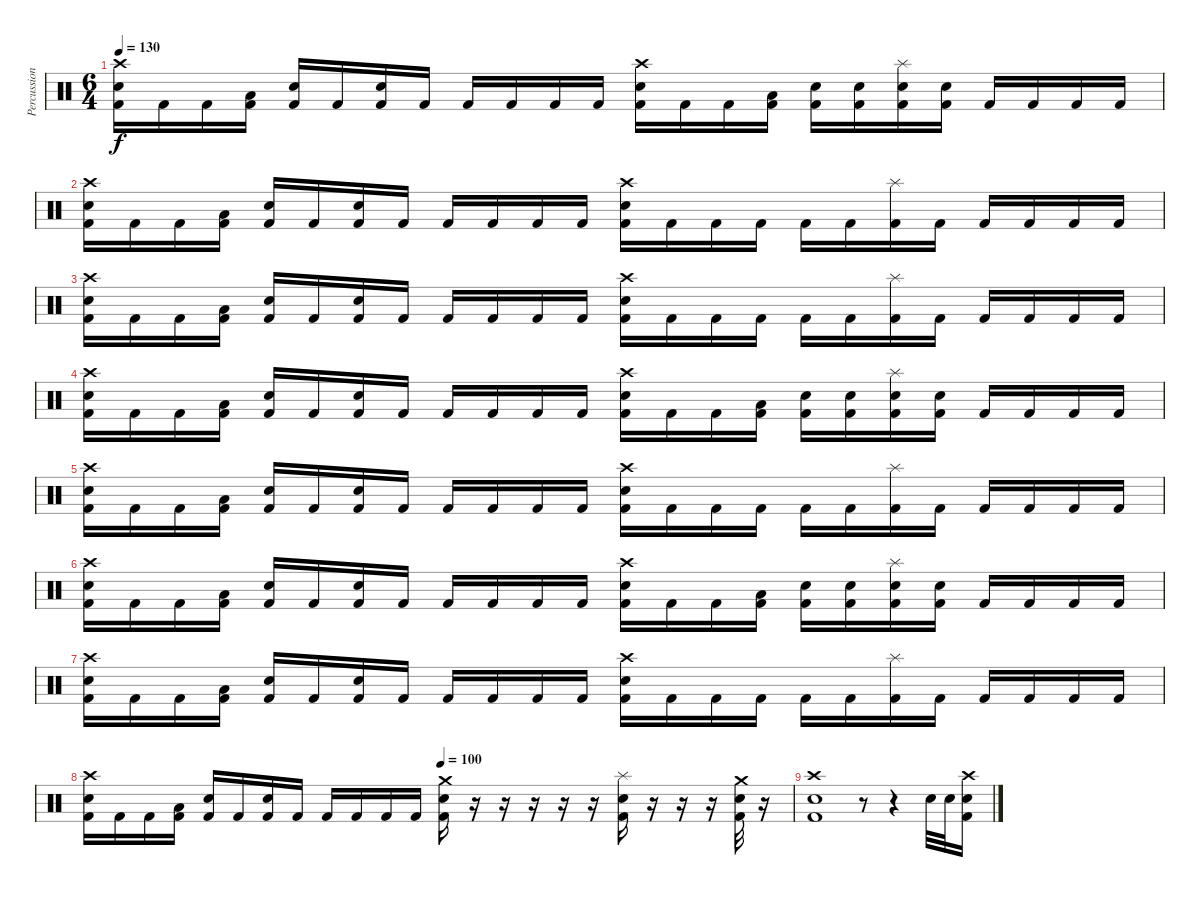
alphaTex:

\track ("Percussion" "Percussion") {instrument percussion}
\staff {score}
\articulation defaults
\ts (6 4)
\tempo 130
\clef neutral
\ks c
("Crash high (hit)" "Snare (hit) 2" "Kick (hit) 2").16{dy f} "Kick (hit) 2".16 "Kick (hit) 2".16 ("Low Tom (hit)" "Kick (hit) 2").16 ("Snare (hit) 2" "Kick (hit) 2").16 "Kick (hit) 2".16 ("Snare (hit) 2" "Kick (hit) 2").16 "Kick (hit) 2".16 "Kick (hit) 2".16 "Kick (hit) 2".16 "Kick (hit) 2".16 "Kick (hit) 2".16 ("Crash high (hit)" "Snare (hit) 2" "Kick (hit) 2").16 "Kick (hit) 2".16 "Kick (hit) 2".16 ("Low Tom (hit)" "Kick (hit) 2").16 ("Snare (hit) 2" "Kick (hit) 2").16 ("Electric Snare (hit)" "Kick (hit) 2").16 ("Splash (hit)" "Snare (hit) 2" "Kick (hit) 2").16 ("Electric Snare (hit)" "Kick (hit) 2").16 "Kick (hit) 2".16 "Kick (hit) 2".16 "Kick (hit) 2".16 "Kick (hit) 2".16 |
("Crash high (hit)" "Snare (hit) 2" "Kick (hit) 2").16 "Kick (hit) 2".16 "Kick (hit) 2".16 ("Low Tom (hit)" "Kick (hit) 2").16 ("Snare (hit) 2" "Kick (hit) 2").16 "Kick (hit) 2".16 ("Snare (hit) 2" "Kick (hit) 2").16 "Kick (hit) 2".16 "Kick (hit) 2".16 "Kick (hit) 2".16 "Kick (hit) 2".16 "Kick (hit) 2".16 ("Crash high (hit)" "Snare (hit) 2" "Kick (hit) 2").16 "Kick (hit) 2".16 "Kick (hit) 2".16 "Kick (hit) 2".16 "Kick (hit) 2".16 "Kick (hit) 2".16 ("Splash (hit)" "Kick (hit) 2").16 "Kick (hit) 2".16 "Kick (hit) 2".16 "Kick (hit) 2".16 "Kick (hit) 2".16 "Kick (hit) 2".16 |
("Crash high (hit)" "Snare (hit) 2" "Kick (hit) 2").16 "Kick (hit) 2".16 "Kick (hit) 2".16 ("Low Tom (hit)" "Kick (hit) 2").16 ("Snare (hit) 2" "Kick (hit) 2").16 "Kick (hit) 2".16 ("Snare (hit) 2" "Kick (hit) 2").16 "Kick (hit) 2".16 "Kick (hit) 2".16 "Kick (hit) 2".16 "Kick (hit) 2".16 "Kick (hit) 2".16 ("Crash high (hit)" "Snare (hit) 2" "Kick (hit) 2").16 "Kick (hit) 2".16 "Kick (hit) 2".16 "Kick (hit) 2".16 "Kick (hit) 2".16 "Kick (hit) 2".16 ("Splash (hit)" "Kick (hit) 2").16 "Kick (hit) 2".16 "Kick (hit) 2".16 "Kick (hit) 2".16 "Kick (hit) 2".16 "Kick (hit) 2".16 |
("Crash high (hit)" "Snare (hit) 2" "Kick (hit) 2").16 "Kick (hit) 2".16 "Kick (hit) 2".16 ("Low Tom (hit)" "Kick (hit) 2").16 ("Snare (hit) 2" "Kick (hit) 2").16 "Kick (hit) 2".16 ("Snare (hit) 2" "Kick (hit) 2").16 "Kick (hit) 2".16 "Kick (hit) 2".16 "Kick (hit) 2".16 "Kick (hit) 2".16 "Kick (hit) 2".16 ("Crash high (hit)" "Snare (hit) 2" "Kick (hit) 2").16 "Kick (hit) 2".16 "Kick (hit) 2".16 ("Low Tom (hit)" "Kick (hit) 2").16 ("Snare (hit) 2" "Kick (hit) 2").16 ("Electric Snare (hit)" "Kick (hit) 2").16 ("Splash (hit)" "Snare (hit) 2" "Kick (hit) 2").16 ("Electric Snare (hit)" "Kick (hit) 2").16 "Kick (hit) 2".16 "Kick (hit) 2".16 "Kick (hit) 2".16 "Kick (hit) 2".16 |
("Crash high (hit)" "Snare (hit) 2" "Kick (hit) 2").16 "Kick (hit) 2".16 "Kick (hit) 2".16 ("Low Tom (hit)" "Kick (hit) 2").16 ("Snare (hit) 2" "Kick (hit) 2").16 "Kick (hit) 2".16 ("Snare (hit) 2" "Kick (hit) 2").16 "Kick (hit) 2".16 "Kick (hit) 2".16 "Kick (hit) 2".16 "Kick (hit) 2".16 "Kick (hit) 2".16 ("Crash high (hit)" "Snare (hit) 2" "Kick (hit) 2").16 "Kick (hit) 2".16 "Kick (hit) 2".16 "Kick (hit) 2".16 "Kick (hit) 2".16 "Kick (hit) 2".16 ("Splash (hit)" "Kick (hit) 2").16 "Kick (hit) 2".16 "Kick (hit) 2".16 "Kick (hit) 2".16 "Kick (hit) 2".16 "Kick (hit) 2".16 |
("Crash high (hit)" "Snare (hit) 2" "Kick (hit) 2").16 "Kick (hit) 2".16 "Kick (hit) 2".16 ("Low Tom (hit)" "Kick (hit) 2").16 ("Snare (hit) 2" "Kick (hit) 2").16 "Kick (hit) 2".16 ("Snare (hit) 2" "Kick (hit) 2").16 "Kick (hit) 2".16 "Kick (hit) 2".16 "Kick (hit) 2".16 "Kick (hit) 2".16 "Kick (hit) 2".16 ("Crash high (hit)" "Snare (hit) 2" "Kick (hit) 2").16 "Kick (hit) 2".16 "Kick (hit) 2".16 ("Low Tom (hit)" "Kick (hit) 2").16 ("Snare (hit) 2" "Kick (hit) 2").16 ("Electric Snare (hit)" "Kick (hit) 2").16 ("Splash (hit)" "Snare (hit) 2" "Kick (hit) 2").16 ("Electric Snare (hit)" "Kick (hit) 2").16 "Kick (hit) 2".16 "Kick (hit) 2".16 "Kick (hit) 2".16 "Kick (hit) 2".16 |
("Crash high (hit)" "Snare (hit) 2" "Kick (hit) 2").16 "Kick (hit) 2".16 "Kick (hit) 2".16 ("Low Tom (hit)" "Kick (hit) 2").16 ("Snare (hit) 2" "Kick (hit) 2").16 "Kick (hit) 2".16 ("Snare (hit) 2" "Kick (hit) 2").16 "Kick (hit) 2".16 "Kick (hit) 2".16 "Kick (hit) 2".16 "Kick (hit) 2".16 "Kick (hit) 2".16 ("Crash high (hit)" "Snare (hit) 2" "Kick (hit) 2").16 "Kick (hit) 2".16 "Kick (hit) 2".16 "Kick (hit) 2".16 "Kick (hit) 2".16 "Kick (hit) 2".16 ("Splash (hit)" "Kick (hit) 2").16 "Kick (hit) 2".16 "Kick (hit) 2".16 "Kick (hit) 2".16 "Kick (hit) 2".16 "Kick (hit) 2".16 |
\tempo (100 0.5)
("Crash high (hit)" "Snare (hit) 2" "Kick (hit) 2").16 "Kick (hit) 2".16 "Kick (hit) 2".16 ("Low Tom (hit)" "Kick (hit) 2").16 ("Snare (hit) 2" "Kick (hit) 2").16 "Kick (hit) 2".16 ("Snare (hit) 2" "Kick (hit) 2").16 "Kick (hit) 2".16 "Kick (hit) 2".16 "Kick (hit) 2".16 "Kick (hit) 2".16 "Kick (hit) 2".16 ("Crash medium (hit)" "Snare (hit) 2" "Kick (hit) 2").16 r.16 r.16 r.16 r.16 r.16 ("Splash (hit)" "Snare (hit) 2" "Kick (hit) 2").16 r.16 r.16 r.16 ("Crash medium (hit)" "Snare (hit) 2" "Kick (hit) 2").32 r.16 |
("Crash high (hit)" "Snare (hit) 2" "Kick (hit) 2").1 r.8 r.4 "Electric Snare (hit)".32 "Electric Snare (hit)".32 ("Crash high (hit)" "Snare (hit) 2" "Kick (hit) 2").16
